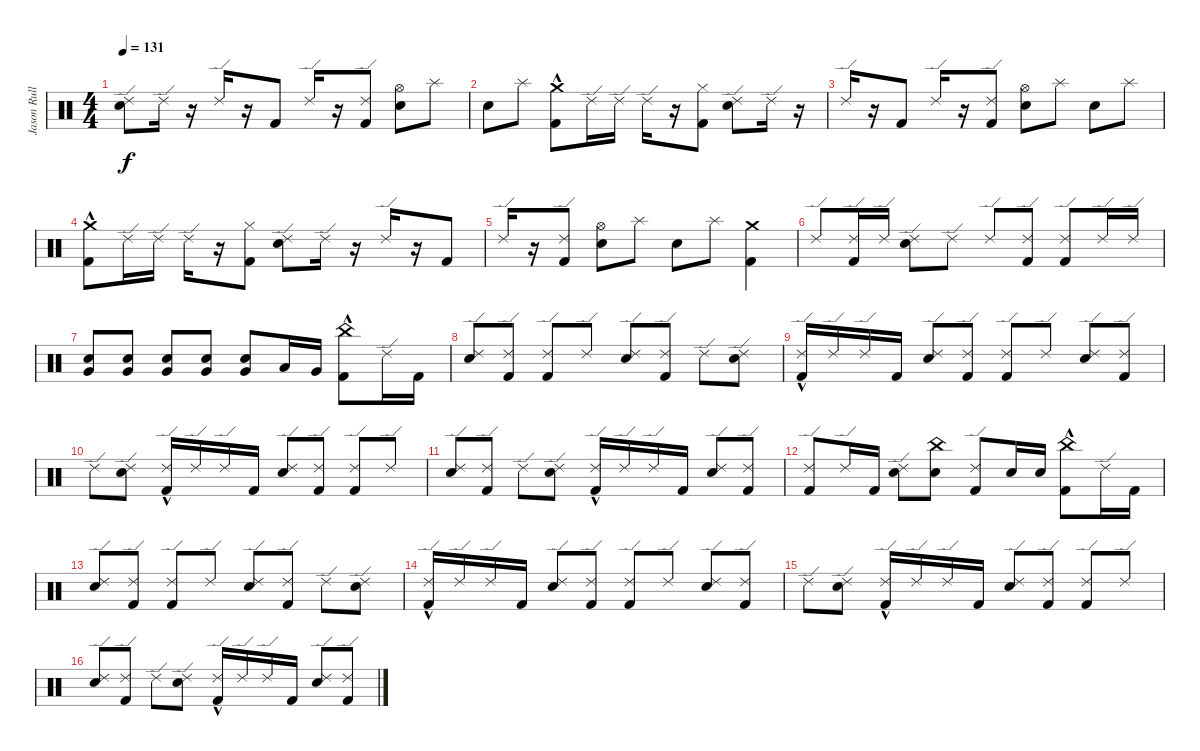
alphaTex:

\track ("Jason Rullo (Drums)" "Jason Rull") {instrument percussion}
\staff {score}
\articulation defaults
\ts (4 4)
\tempo 131
\clef neutral
\ks c
("Ride (edge) 2" "Electric Snare (hit)").8{dy f} "Ride (edge) 2".16 r.16 "Ride (edge) 2".16 r.16 "Kick (hit) 2".8 "Ride (edge) 2".16 r.16 ("Ride (edge) 2" "Kick (hit) 2").8 ("Hi-Hat (open)" "Electric Snare (hit)").8 "Splash (hit)".8 |
"Electric Snare (hit)".8 "Splash (hit)".8 ("Crash medium (hit)" "Kick (hit) 2"{hac}).8 "Ride (edge) 2".16 "Ride (edge) 2".16 "Ride (edge) 2".16 r.16 ("Hi-Hat (closed)" "Kick (hit) 2").8 ("Ride (edge) 2" "Electric Snare (hit)").8 "Ride (edge) 2".16 r.16 |
"Ride (edge) 2".16 r.16 "Kick (hit) 2".8 "Ride (edge) 2".16 r.16 ("Ride (edge) 2" "Kick (hit) 2").8 ("Hi-Hat (open)" "Electric Snare (hit)").8 "Splash (hit)".8 "Electric Snare (hit)".8 "Splash (hit)".8 |
("Crash medium (hit)" "Kick (hit) 2"{hac}).8 "Ride (edge) 2".16 "Ride (edge) 2".16 "Ride (edge) 2".16 r.16 ("Hi-Hat (closed)" "Kick (hit) 2").8 ("Ride (edge) 2" "Electric Snare (hit)").8 "Ride (edge) 2".16 r.16 "Ride (edge) 2".16 r.16 "Kick (hit) 2".8 |
"Ride (edge) 2".16 r.16 ("Ride (edge) 2" "Kick (hit) 2").8 ("Hi-Hat (open)" "Electric Snare (hit)").8 "Splash (hit)".8 "Electric Snare (hit)".8 "Splash (hit)".8 ("Crash medium (hit)" "Kick (hit) 2").4 |
"Ride (edge) 2".8 ("Ride (edge) 2" "Kick (hit) 2").16 "Ride (edge) 2".16 ("Ride (edge) 2" "Electric Snare (hit)").8 "Ride (edge) 2".8 "Ride (edge) 2".8 ("Ride (edge) 2" "Kick (hit) 2").8 ("Ride (edge) 2" "Kick (hit) 2").8 "Ride (edge) 2".16 "Ride (edge) 2".16 |
("Very Low Tom (hit)" "Electric Snare (hit)").8{volume 8} ("Electric Snare (hit)" "Very Low Tom (hit)").8{volume 10} ("Very Low Tom (hit)" "Electric Snare (hit)").8{volume 12} ("Electric Snare (hit)" "Very Low Tom (hit)").8{volume 14} ("Electric Snare (hit)" "Very Low Tom (hit)").8{volume 16} "Low Tom (hit)".16 "Very Low Tom (hit)".16 ("Kick (hit) 2"{hac} "China (hit)").8 "Ride (edge) 2".16 "Kick (hit) 2".16 |
("Electric Snare (hit)" "Ride (edge) 2").8 ("Kick (hit) 2" "Ride (edge) 2").8 ("Kick (hit) 2" "Ride (edge) 2").8 "Ride (edge) 2".8 ("Electric Snare (hit)" "Ride (edge) 2").8 ("Kick (hit) 2" "Ride (edge) 2").8 "Ride (edge) 2".8 ("Electric Snare (hit)" "Ride (edge) 2").8 |
("Ride (edge) 2" "Kick (hit) 2"{hac}).16 "Ride (edge) 2".16 "Ride (edge) 2".16 "Kick (hit) 2".16 ("Electric Snare (hit)" "Ride (edge) 2").8 ("Kick (hit) 2" "Ride (edge) 2").8 ("Kick (hit) 2" "Ride (edge) 2").8 "Ride (edge) 2".8 ("Electric Snare (hit)" "Ride (edge) 2").8 ("Kick (hit) 2" "Ride (edge) 2").8 |
"Ride (edge) 2".8 ("Electric Snare (hit)" "Ride (edge) 2").8 ("Ride (edge) 2" "Kick (hit) 2"{hac}).16 "Ride (edge) 2".16 "Ride (edge) 2".16 "Kick (hit) 2".16 ("Electric Snare (hit)" "Ride (edge) 2").8 ("Kick (hit) 2" "Ride (edge) 2").8 ("Kick (hit) 2" "Ride (edge) 2").8 "Ride (edge) 2".8 |
("Electric Snare (hit)" "Ride (edge) 2").8 ("Kick (hit) 2" "Ride (edge) 2").8 "Ride (edge) 2".8 ("Electric Snare (hit)" "Ride (edge) 2").8 ("Ride (edge) 2" "Kick (hit) 2"{hac}).16 "Ride (edge) 2".16 "Ride (edge) 2".16 "Kick (hit) 2".16 ("Electric Snare (hit)" "Ride (edge) 2").8 ("Kick (hit) 2" "Ride (edge) 2").8 |
("Kick (hit) 2" "Ride (edge) 2").8 "Ride (edge) 2".16 "Kick (hit) 2".16 ("Electric Snare (hit)" "Ride (edge) 2").8 ("China (hit)" "Electric Snare (hit)").8 ("Ride (edge) 2" "Kick (hit) 2").8 "Electric Snare (hit)".16 "Electric Snare (hit)".16 ("Kick (hit) 2"{hac} "China (hit)").8 "Ride (edge) 2".16 "Kick (hit) 2".16 |
("Electric Snare (hit)" "Ride (edge) 2").8 ("Kick (hit) 2" "Ride (edge) 2").8 ("Kick (hit) 2" "Ride (edge) 2").8 "Ride (edge) 2".8 ("Electric Snare (hit)" "Ride (edge) 2").8 ("Kick (hit) 2" "Ride (edge) 2").8 "Ride (edge) 2".8 ("Electric Snare (hit)" "Ride (edge) 2").8 |
("Ride (edge) 2" "Kick (hit) 2"{hac}).16 "Ride (edge) 2".16 "Ride (edge) 2".16 "Kick (hit) 2".16 ("Electric Snare (hit)" "Ride (edge) 2").8 ("Kick (hit) 2" "Ride (edge) 2").8 ("Kick (hit) 2" "Ride (edge) 2").8 "Ride (edge) 2".8 ("Electric Snare (hit)" "Ride (edge) 2").8 ("Kick (hit) 2" "Ride (edge) 2").8 |
"Ride (edge) 2".8 ("Electric Snare (hit)" "Ride (edge) 2").8 ("Ride (edge) 2" "Kick (hit) 2"{hac}).16 "Ride (edge) 2".16 "Ride (edge) 2".16 "Kick (hit) 2".16 ("Electric Snare (hit)" "Ride (edge) 2").8 ("Kick (hit) 2" "Ride (edge) 2").8 ("Kick (hit) 2" "Ride (edge) 2").8 "Ride (edge) 2".8 |
("Electric Snare (hit)" "Ride (edge) 2").8 ("Kick (hit) 2" "Ride (edge) 2").8 "Ride (edge) 2".8 ("Electric Snare (hit)" "Ride (edge) 2").8 ("Ride (edge) 2" "Kick (hit) 2"{hac}).16 "Ride (edge) 2".16 "Ride (edge) 2".16 "Kick (hit) 2".16 ("Electric Snare (hit)" "Ride (edge) 2").8 ("Kick (hit) 2" "Ride (edge) 2").8
